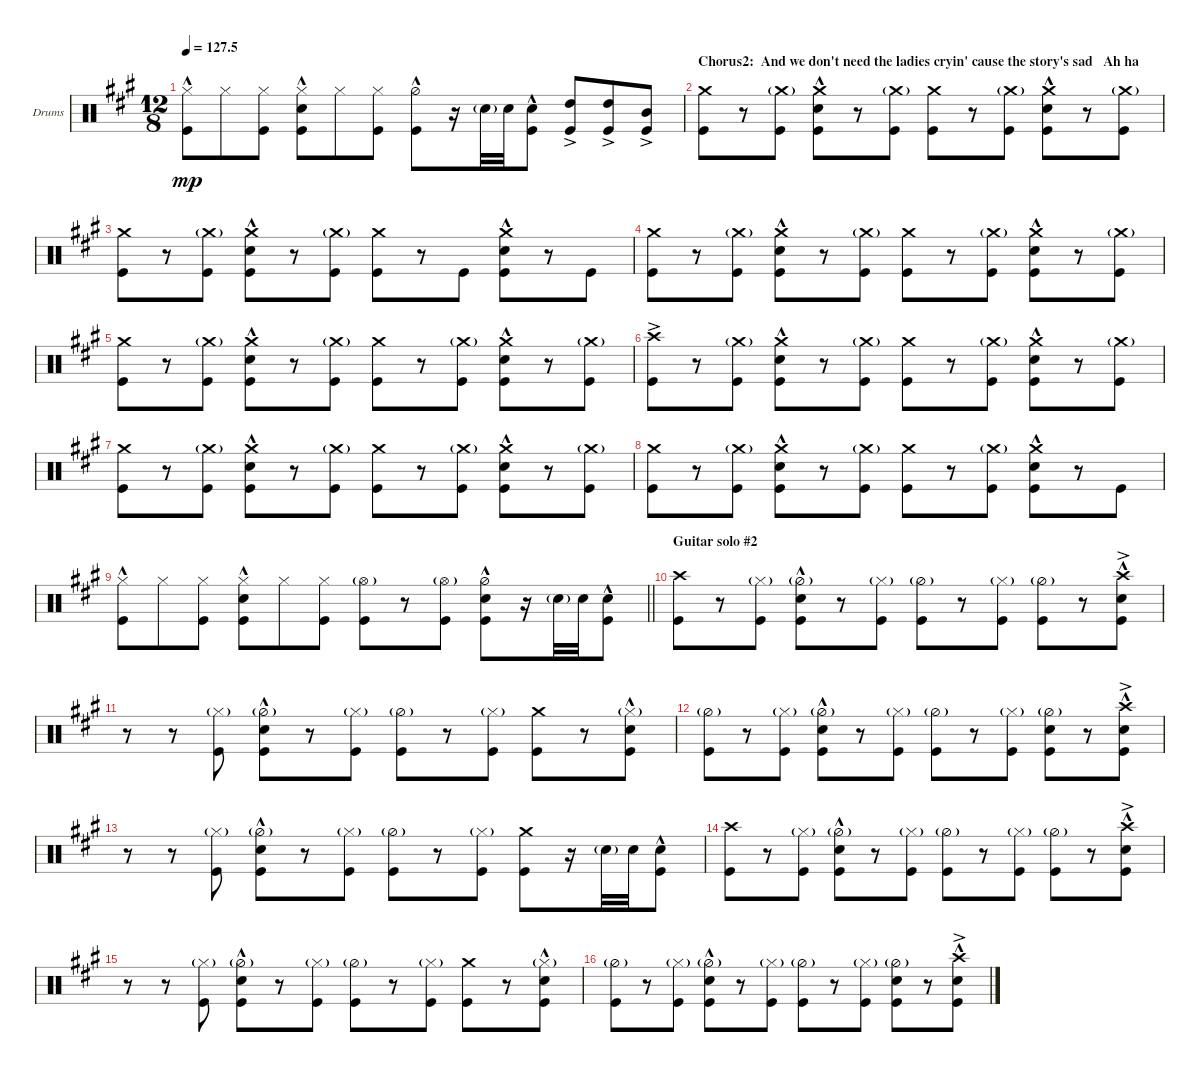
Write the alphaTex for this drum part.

\bracketExtendMode groupsimilarinstruments
\firstSystemTrackNameOrientation horizontal
\otherSystemsTrackNameOrientation horizontal
\track ("Drumkit" "Drums") {instrument percussion}
\staff {score}
\articulation defaults
\ts (12 8)
\tempo
127.5
\accidentals auto
\clef neutral
\ottava regular
\simile none
\scale
0.333333
\ks a
("Kick (hit)" "Hi-Hat (closed)"{hac}).8{dy mp} "Hi-Hat (closed)".8 ("Kick (hit)" "Hi-Hat (closed)").8 ("Kick (hit)" "Snare (hit) 2"{hac} "Hi-Hat (closed)"{hac}).8 "Hi-Hat (closed)".8 ("Kick (hit)" "Hi-Hat (closed)").8 ("Kick (hit)" "Hi-Hat (half)"{hac}).8 r.16 "Snare (hit) 2"{g}.32 "Snare (hit) 2".32 ("Snare (hit) 2"{hac} "Kick (hit)").8 ("Kick (hit)" "High Tom (hit)"{ac}).8 ("High Tom (hit)"{ac} "Kick (hit)").8 ("Kick (hit)" "Mid Tom (hit)"{ac}).8 |
\section ("" "Chorus2:  And we don't need the ladies cryin' cause the story's sad   Ah ha")
\scale
0.333333 ("Kick (hit)" "Crash medium (hit)").8 r.8 ("Kick (hit)" "Crash medium (hit)"{g}).8 ("Kick (hit)" "Snare (hit) 2"{hac} "Crash medium (hit)").8 r.8 ("Kick (hit)" "Crash medium (hit)"{g}).8 ("Kick (hit)" "Crash medium (hit)").8 r.8 ("Kick (hit)" "Crash medium (hit)"{g}).8 ("Kick (hit)" "Snare (hit) 2"{hac} "Crash medium (hit)").8 r.8 ("Kick (hit)" "Crash medium (hit)"{g}).8 |
\scale
0.333333 ("Kick (hit)" "Crash medium (hit)").8 r.8 ("Kick (hit)" "Crash medium (hit)"{g}).8 ("Kick (hit)" "Snare (hit) 2"{hac} "Crash medium (hit)").8 r.8 ("Kick (hit)" "Crash medium (hit)"{g}).8 ("Kick (hit)" "Crash medium (hit)").8 r.8 "Kick (hit)".8 ("Kick (hit)" "Snare (hit) 2"{hac} "Crash medium (hit)").8 r.8 "Kick (hit)".8 |
\scale
0.333333 ("Kick (hit)" "Crash medium (hit)").8 r.8 ("Kick (hit)" "Crash medium (hit)"{g}).8 ("Kick (hit)" "Snare (hit) 2"{hac} "Crash medium (hit)").8 r.8 ("Kick (hit)" "Crash medium (hit)"{g}).8 ("Kick (hit)" "Crash medium (hit)").8 r.8 ("Kick (hit)" "Crash medium (hit)"{g}).8 ("Kick (hit)" "Snare (hit) 2"{hac} "Crash medium (hit)").8 r.8 ("Kick (hit)" "Crash medium (hit)"{g}).8 |
\scale
0.333333 ("Kick (hit)" "Crash medium (hit)").8 r.8 ("Kick (hit)" "Crash medium (hit)"{g}).8 ("Kick (hit)" "Snare (hit) 2"{hac} "Crash medium (hit)").8 r.8 ("Kick (hit)" "Crash medium (hit)"{g}).8 ("Kick (hit)" "Crash medium (hit)").8 r.8 ("Kick (hit)" "Crash medium (hit)"{g}).8 ("Kick (hit)" "Snare (hit) 2"{hac} "Crash medium (hit)").8 r.8 ("Kick (hit)" "Crash medium (hit)"{g}).8 |
\scale
0.333333 ("Kick (hit)" "Crash high (hit)"{ac}).8 r.8 ("Kick (hit)" "Crash medium (hit)"{g}).8 ("Kick (hit)" "Snare (hit) 2"{hac} "Crash medium (hit)").8 r.8 ("Kick (hit)" "Crash medium (hit)"{g}).8 ("Kick (hit)" "Crash medium (hit)").8 r.8 ("Kick (hit)" "Crash medium (hit)"{g}).8 ("Kick (hit)" "Snare (hit) 2"{hac} "Crash medium (hit)").8 r.8 ("Kick (hit)" "Crash medium (hit)"{g}).8 |
\scale
0.333333 ("Kick (hit)" "Crash medium (hit)").8 r.8 ("Kick (hit)" "Crash medium (hit)"{g}).8 ("Kick (hit)" "Snare (hit) 2"{hac} "Crash medium (hit)").8 r.8 ("Kick (hit)" "Crash medium (hit)"{g}).8 ("Kick (hit)" "Crash medium (hit)").8 r.8 ("Kick (hit)" "Crash medium (hit)"{g}).8 ("Kick (hit)" "Snare (hit) 2"{hac} "Crash medium (hit)").8 r.8 ("Kick (hit)" "Crash medium (hit)"{g}).8 |
\scale
0.333333 ("Kick (hit)" "Crash medium (hit)").8 r.8 ("Kick (hit)" "Crash medium (hit)"{g}).8 ("Kick (hit)" "Snare (hit) 2"{hac} "Crash medium (hit)").8 r.8 ("Kick (hit)" "Crash medium (hit)"{g}).8 ("Kick (hit)" "Crash medium (hit)").8 r.8 ("Kick (hit)" "Crash medium (hit)"{g}).8 ("Kick (hit)" "Snare (hit) 2"{hac} "Crash medium (hit)").8 r.8 "Kick (hit)".8 |
\scale
0.333333
\barLineRight lightlight
("Kick (hit)" "Hi-Hat (closed)"{hac}).8 "Hi-Hat (closed)".8 ("Kick (hit)" "Hi-Hat (closed)").8 ("Kick (hit)" "Snare (hit) 2"{hac} "Hi-Hat (closed)"{hac}).8 "Hi-Hat (closed)".8 ("Kick (hit)" "Hi-Hat (closed)").8 ("Kick (hit)" "Hi-Hat (open)"{g}).8 r.8 ("Kick (hit)" "Hi-Hat (open)"{g}).8 ("Snare (hit) 2"{hac} "Kick (hit)" "Hi-Hat (half)").8 r.16 "Snare (hit) 2"{g}.32 "Snare (hit) 2".32 ("Kick (hit)" "Snare (hit) 2"{hac}).8 |
\section ("" "Guitar solo #2")
\scale
0.333333 ("Kick (hit)" "Crash high (hit)").8 r.8 ("Kick (hit)" "Hi-Hat (closed)"{g}).8 ("Kick (hit)" "Hi-Hat (half)"{g} "Snare (hit) 2"{hac}).8 r.8 ("Kick (hit)" "Hi-Hat (closed)"{g}).8 ("Kick (hit)" "Hi-Hat (half)"{g}).8 r.8 ("Kick (hit)" "Hi-Hat (closed)"{g}).8 ("Kick (hit)" "Hi-Hat (half)"{g}).8 r.8 ("Kick (hit)" "Snare (hit) 2"{hac} "Crash high (hit)"{ac}).8 |
\scale
0.333333 r.8 r.8 ("Kick (hit)" "Hi-Hat (closed)"{g}).8 ("Kick (hit)" "Hi-Hat (half)"{g} "Snare (hit) 2"{hac}).8 r.8 ("Kick (hit)" "Hi-Hat (closed)"{g}).8 ("Kick (hit)" "Hi-Hat (half)"{g}).8 r.8 ("Kick (hit)" "Hi-Hat (closed)"{g}).8 ("Kick (hit)" "Crash medium (hit)").8 r.8 ("Kick (hit)" "Hi-Hat (closed)"{g} "Snare (hit) 2"{hac}).8 |
\scale
0.333333 ("Kick (hit)" "Hi-Hat (half)"{g}).8 r.8 ("Kick (hit)" "Hi-Hat (closed)"{g}).8 ("Kick (hit)" "Hi-Hat (half)"{g} "Snare (hit) 2"{hac}).8 r.8 ("Kick (hit)" "Hi-Hat (closed)"{g}).8 ("Kick (hit)" "Hi-Hat (half)"{g}).8 r.8 ("Kick (hit)" "Hi-Hat (closed)"{g}).8 ("Kick (hit)" "Hi-Hat (half)"{g} "Snare (hit) 2").8 r.8 ("Kick (hit)" "Snare (hit) 2"{hac} "Crash high (hit)"{ac}).8 |
\scale
0.333333 r.8 r.8 ("Kick (hit)" "Hi-Hat (closed)"{g}).8 ("Kick (hit)" "Hi-Hat (half)"{g} "Snare (hit) 2"{hac}).8 r.8 ("Kick (hit)" "Hi-Hat (closed)"{g}).8 ("Kick (hit)" "Hi-Hat (half)"{g}).8 r.8 ("Kick (hit)" "Hi-Hat (closed)"{g}).8 ("Kick (hit)" "Crash medium (hit)").8 r.16 "Snare (hit) 2"{g}.32 "Snare (hit) 2".32 ("Kick (hit)" "Snare (hit) 2"{hac}).8 |
\scale
0.333333 ("Kick (hit)" "Crash high (hit)").8 r.8 ("Kick (hit)" "Hi-Hat (closed)"{g}).8 ("Kick (hit)" "Hi-Hat (half)"{g} "Snare (hit) 2"{hac}).8 r.8 ("Kick (hit)" "Hi-Hat (closed)"{g}).8 ("Kick (hit)" "Hi-Hat (half)"{g}).8 r.8 ("Kick (hit)" "Hi-Hat (closed)"{g}).8 ("Kick (hit)" "Hi-Hat (half)"{g}).8 r.8 ("Kick (hit)" "Snare (hit) 2"{hac} "Crash high (hit)"{ac}).8 |
\scale
0.333333 r.8 r.8 ("Kick (hit)" "Hi-Hat (closed)"{g}).8 ("Kick (hit)" "Hi-Hat (half)"{g} "Snare (hit) 2"{hac}).8 r.8 ("Kick (hit)" "Hi-Hat (closed)"{g}).8 ("Kick (hit)" "Hi-Hat (half)"{g}).8 r.8 ("Kick (hit)" "Hi-Hat (closed)"{g}).8 ("Kick (hit)" "Crash medium (hit)").8 r.8 ("Kick (hit)" "Hi-Hat (closed)"{g} "Snare (hit) 2"{hac}).8 |
\scale
0.333333 ("Kick (hit)" "Hi-Hat (half)"{g}).8 r.8 ("Kick (hit)" "Hi-Hat (closed)"{g}).8 ("Kick (hit)" "Hi-Hat (half)"{g} "Snare (hit) 2"{hac}).8 r.8 ("Kick (hit)" "Hi-Hat (closed)"{g}).8 ("Kick (hit)" "Hi-Hat (half)"{g}).8 r.8 ("Kick (hit)" "Hi-Hat (closed)"{g}).8 ("Kick (hit)" "Hi-Hat (half)"{g} "Snare (hit) 2").8 r.8 ("Kick (hit)" "Snare (hit) 2"{hac} "Crash high (hit)"{ac}).8
